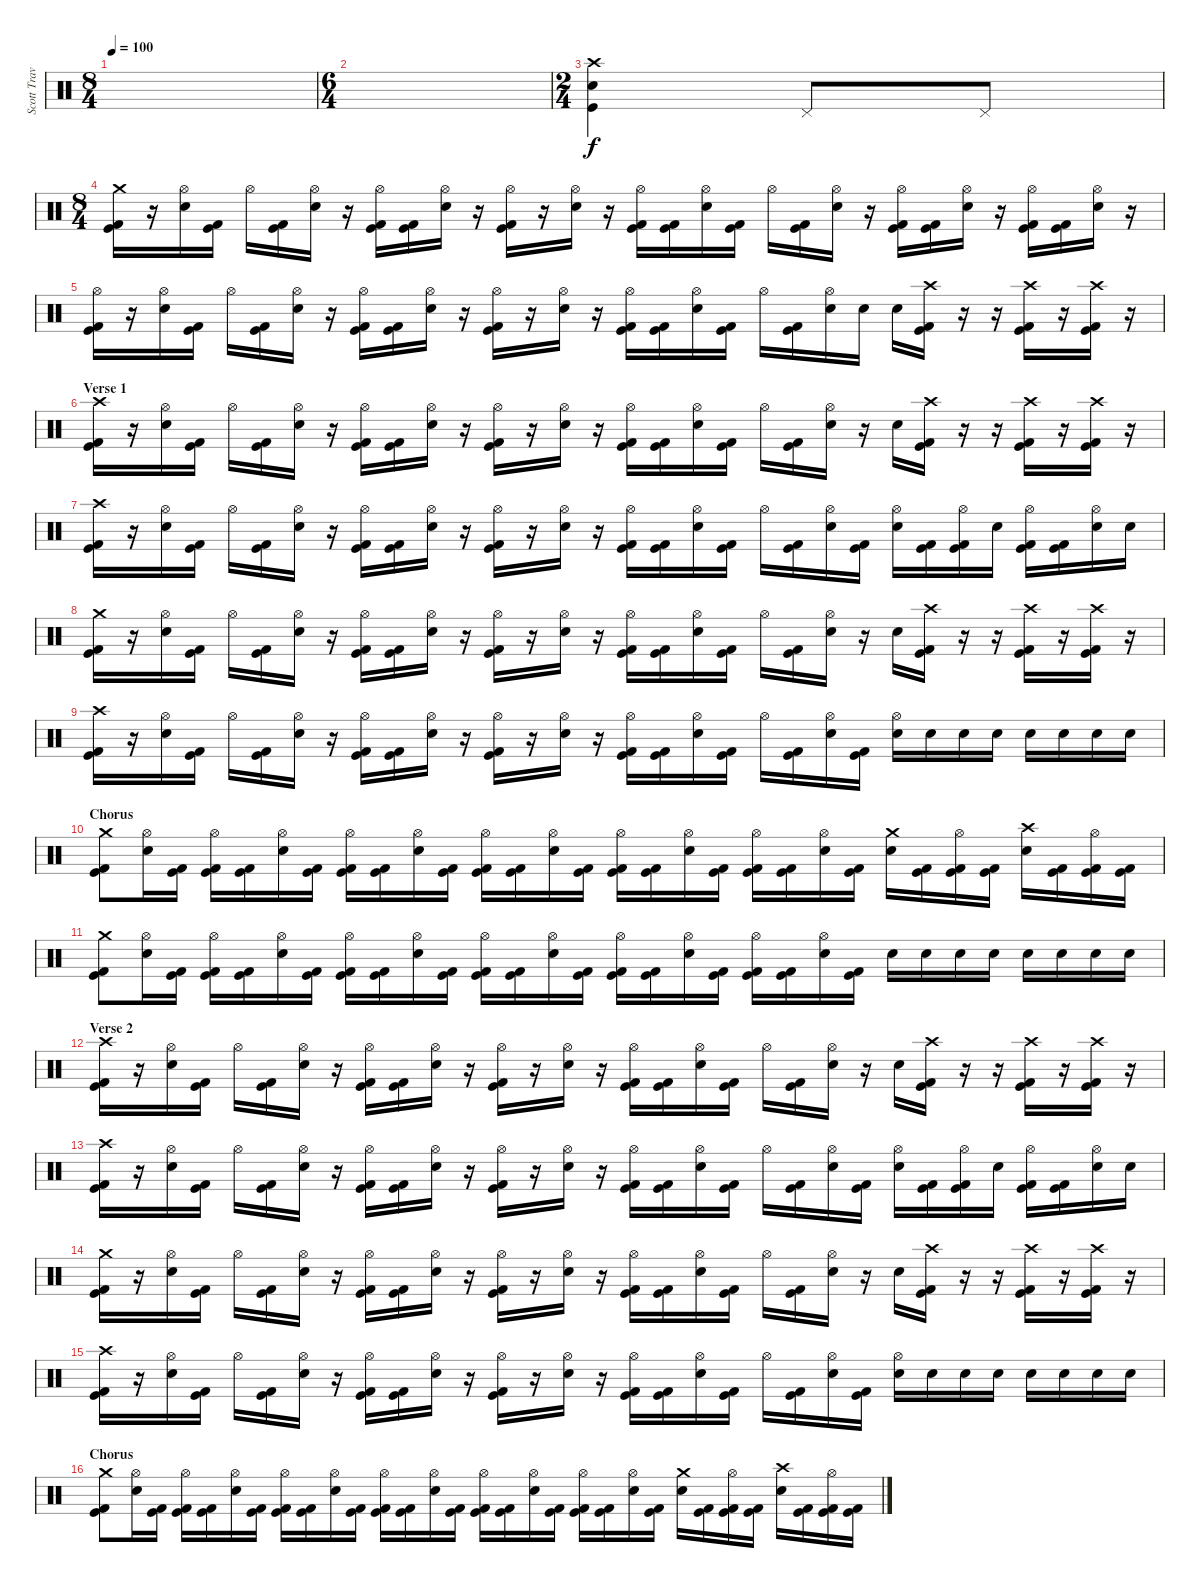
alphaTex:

\track ("Scott Travis" "Scott Trav") {instrument percussion}
\staff {score}
\articulation defaults
\ts (8 4)
\tempo 100
\clef neutral
\ks c
|
\ts (6 4)
|
\ts (2 4)
("Crash high (hit)" "Kick (hit)" "Electric Snare (hit)").4 "Pedal Hi-Hat (hit)".8 "Pedal Hi-Hat (hit)".8 |
\ts (8 4)
("Crash medium (hit)" "Kick (hit) 2" "Kick (hit)").16 r.16 ("Hi-Hat (open)" "Electric Snare (hit)").16 ("Kick (hit) 2" "Kick (hit)").16 "Hi-Hat (open)".16 ("Kick (hit) 2" "Kick (hit)").16 ("Hi-Hat (open)" "Electric Snare (hit)").16 r.16 ("Hi-Hat (open)" "Kick (hit) 2" "Kick (hit)").16 ("Kick (hit) 2" "Kick (hit)").16 ("Hi-Hat (open)" "Electric Snare (hit)").16 r.16 ("Hi-Hat (open)" "Kick (hit) 2" "Kick (hit)").16 r.16 ("Hi-Hat (open)" "Electric Snare (hit)").16 r.16 ("Hi-Hat (open)" "Kick (hit) 2" "Kick (hit)").16 ("Kick (hit) 2" "Kick (hit)").16 ("Hi-Hat (open)" "Electric Snare (hit)").16 ("Kick (hit) 2" "Kick (hit)").16 "Hi-Hat (open)".16 ("Kick (hit) 2" "Kick (hit)").16 ("Hi-Hat (open)" "Electric Snare (hit)").16 r.16 ("Hi-Hat (open)" "Kick (hit) 2" "Kick (hit)").16 ("Kick (hit) 2" "Kick (hit)").16 ("Hi-Hat (open)" "Electric Snare (hit)").16 r.16 ("Hi-Hat (open)" "Kick (hit) 2" "Kick (hit)").16 ("Kick (hit) 2" "Kick (hit)").16 ("Hi-Hat (open)" "Electric Snare (hit)").16 r.16 |
("Hi-Hat (open)" "Kick (hit) 2" "Kick (hit)").16 r.16 ("Hi-Hat (open)" "Electric Snare (hit)").16 ("Kick (hit) 2" "Kick (hit)").16 "Hi-Hat (open)".16 ("Kick (hit) 2" "Kick (hit)").16 ("Hi-Hat (open)" "Electric Snare (hit)").16 r.16 ("Hi-Hat (open)" "Kick (hit) 2" "Kick (hit)").16 ("Kick (hit) 2" "Kick (hit)").16 ("Hi-Hat (open)" "Electric Snare (hit)").16 r.16 ("Hi-Hat (open)" "Kick (hit) 2" "Kick (hit)").16 r.16 ("Hi-Hat (open)" "Electric Snare (hit)").16 r.16 ("Hi-Hat (open)" "Kick (hit) 2" "Kick (hit)").16 ("Kick (hit) 2" "Kick (hit)").16 ("Hi-Hat (open)" "Electric Snare (hit)").16 ("Kick (hit) 2" "Kick (hit)").16 "Hi-Hat (open)".16 ("Kick (hit) 2" "Kick (hit)").16 ("Hi-Hat (open)" "Electric Snare (hit)").16 "Electric Snare (hit)".16 "Electric Snare (hit)".16 ("Crash high (hit)" "Kick (hit)" "Kick (hit) 2").16 r.16 r.16 ("Crash high (hit)" "Kick (hit) 2" "Kick (hit)").16 r.16 ("Crash high (hit)" "Kick (hit)" "Kick (hit) 2").16 r.16 |
\section ("" "Verse 1")
("Crash high (hit)" "Kick (hit) 2" "Kick (hit)").16 r.16 ("Hi-Hat (open)" "Electric Snare (hit)").16 ("Kick (hit) 2" "Kick (hit)").16 "Hi-Hat (open)".16 ("Kick (hit) 2" "Kick (hit)").16 ("Hi-Hat (open)" "Electric Snare (hit)").16 r.16 ("Hi-Hat (open)" "Kick (hit) 2" "Kick (hit)").16 ("Kick (hit) 2" "Kick (hit)").16 ("Hi-Hat (open)" "Electric Snare (hit)").16 r.16 ("Hi-Hat (open)" "Kick (hit) 2" "Kick (hit)").16 r.16 ("Hi-Hat (open)" "Electric Snare (hit)").16 r.16 ("Hi-Hat (open)" "Kick (hit) 2" "Kick (hit)").16 ("Kick (hit) 2" "Kick (hit)").16 ("Hi-Hat (open)" "Electric Snare (hit)").16 ("Kick (hit) 2" "Kick (hit)").16 "Hi-Hat (open)".16 ("Kick (hit) 2" "Kick (hit)").16 ("Hi-Hat (open)" "Electric Snare (hit)").16 r.16 "Electric Snare (hit)".16 ("Crash high (hit)" "Kick (hit)" "Kick (hit) 2").16 r.16 r.16 ("Crash high (hit)" "Kick (hit) 2" "Kick (hit)").16 r.16 ("Crash high (hit)" "Kick (hit)" "Kick (hit) 2").16 r.16 |
("Crash high (hit)" "Kick (hit) 2" "Kick (hit)").16 r.16 ("Hi-Hat (open)" "Electric Snare (hit)").16 ("Kick (hit) 2" "Kick (hit)").16 "Hi-Hat (open)".16 ("Kick (hit) 2" "Kick (hit)").16 ("Hi-Hat (open)" "Electric Snare (hit)").16 r.16 ("Hi-Hat (open)" "Kick (hit) 2" "Kick (hit)").16 ("Kick (hit) 2" "Kick (hit)").16 ("Hi-Hat (open)" "Electric Snare (hit)").16 r.16 ("Hi-Hat (open)" "Kick (hit) 2" "Kick (hit)").16 r.16 ("Hi-Hat (open)" "Electric Snare (hit)").16 r.16 ("Hi-Hat (open)" "Kick (hit) 2" "Kick (hit)").16 ("Kick (hit) 2" "Kick (hit)").16 ("Hi-Hat (open)" "Electric Snare (hit)").16 ("Kick (hit) 2" "Kick (hit)").16 "Hi-Hat (open)".16 ("Kick (hit) 2" "Kick (hit)").16 ("Hi-Hat (open)" "Electric Snare (hit)").16 ("Kick (hit)" "Kick (hit) 2").16 ("Hi-Hat (open)" "Electric Snare (hit)").16 ("Kick (hit) 2" "Kick (hit)").16 ("Hi-Hat (open)" "Kick (hit) 2" "Kick (hit)").16 "Electric Snare (hit)".16 ("Hi-Hat (open)" "Kick (hit) 2" "Kick (hit)").16 ("Kick (hit) 2" "Kick (hit)").16 ("Hi-Hat (open)" "Electric Snare (hit)").16 "Electric Snare (hit)".16 |
("Crash medium (hit)" "Kick (hit) 2" "Kick (hit)").16 r.16 ("Hi-Hat (open)" "Electric Snare (hit)").16 ("Kick (hit) 2" "Kick (hit)").16 "Hi-Hat (open)".16 ("Kick (hit) 2" "Kick (hit)").16 ("Hi-Hat (open)" "Electric Snare (hit)").16 r.16 ("Hi-Hat (open)" "Kick (hit) 2" "Kick (hit)").16 ("Kick (hit) 2" "Kick (hit)").16 ("Hi-Hat (open)" "Electric Snare (hit)").16 r.16 ("Hi-Hat (open)" "Kick (hit) 2" "Kick (hit)").16 r.16 ("Hi-Hat (open)" "Electric Snare (hit)").16 r.16 ("Hi-Hat (open)" "Kick (hit) 2" "Kick (hit)").16 ("Kick (hit) 2" "Kick (hit)").16 ("Hi-Hat (open)" "Electric Snare (hit)").16 ("Kick (hit) 2" "Kick (hit)").16 "Hi-Hat (open)".16 ("Kick (hit) 2" "Kick (hit)").16 ("Hi-Hat (open)" "Electric Snare (hit)").16 r.16 "Electric Snare (hit)".16 ("Crash high (hit)" "Kick (hit)" "Kick (hit) 2").16 r.16 r.16 ("Crash high (hit)" "Kick (hit) 2" "Kick (hit)").16 r.16 ("Crash high (hit)" "Kick (hit)" "Kick (hit) 2").16 r.16 |
("Crash high (hit)" "Kick (hit) 2" "Kick (hit)").16 r.16 ("Hi-Hat (open)" "Electric Snare (hit)").16 ("Kick (hit) 2" "Kick (hit)").16 "Hi-Hat (open)".16 ("Kick (hit) 2" "Kick (hit)").16 ("Hi-Hat (open)" "Electric Snare (hit)").16 r.16 ("Hi-Hat (open)" "Kick (hit) 2" "Kick (hit)").16 ("Kick (hit) 2" "Kick (hit)").16 ("Hi-Hat (open)" "Electric Snare (hit)").16 r.16 ("Hi-Hat (open)" "Kick (hit) 2" "Kick (hit)").16 r.16 ("Hi-Hat (open)" "Electric Snare (hit)").16 r.16 ("Hi-Hat (open)" "Kick (hit) 2" "Kick (hit)").16 ("Kick (hit) 2" "Kick (hit)").16 ("Hi-Hat (open)" "Electric Snare (hit)").16 ("Kick (hit) 2" "Kick (hit)").16 "Hi-Hat (open)".16 ("Kick (hit) 2" "Kick (hit)").16 ("Hi-Hat (open)" "Electric Snare (hit)").16 ("Kick (hit)" "Kick (hit) 2").16 ("Hi-Hat (open)" "Electric Snare (hit)").16 "Electric Snare (hit)".16 "Electric Snare (hit)".16 "Electric Snare (hit)".16 "Electric Snare (hit)".16 "Electric Snare (hit)".16 "Electric Snare (hit)".16 "Electric Snare (hit)".16 |
\section ("" "Chorus")
("Crash medium (hit)" "Kick (hit)" "Kick (hit) 2").8 ("Hi-Hat (open)" "Electric Snare (hit)").16 ("Kick (hit) 2" "Kick (hit)").16 ("Hi-Hat (open)" "Kick (hit) 2" "Kick (hit)").16 ("Kick (hit) 2" "Kick (hit)").16 ("Hi-Hat (open)" "Electric Snare (hit)").16 ("Kick (hit) 2" "Kick (hit)").16 ("Hi-Hat (open)" "Kick (hit) 2" "Kick (hit)").16 ("Kick (hit) 2" "Kick (hit)").16 ("Hi-Hat (open)" "Electric Snare (hit)").16 ("Kick (hit) 2" "Kick (hit)").16 ("Hi-Hat (open)" "Kick (hit) 2" "Kick (hit)").16 ("Kick (hit) 2" "Kick (hit)").16 ("Hi-Hat (open)" "Electric Snare (hit)").16 ("Kick (hit) 2" "Kick (hit)").16 ("Hi-Hat (open)" "Kick (hit) 2" "Kick (hit)").16 ("Kick (hit) 2" "Kick (hit)").16 ("Hi-Hat (open)" "Electric Snare (hit)").16 ("Kick (hit) 2" "Kick (hit)").16 ("Hi-Hat (open)" "Kick (hit) 2" "Kick (hit)").16 ("Kick (hit) 2" "Kick (hit)").16 ("Hi-Hat (open)" "Electric Snare (hit)").16 ("Kick (hit) 2" "Kick (hit)").16 ("Crash medium (hit)" "Electric Snare (hit)").16 ("Kick (hit) 2" "Kick (hit)").16 ("Hi-Hat (open)" "Kick (hit) 2" "Kick (hit)").16 ("Kick (hit) 2" "Kick (hit)").16 ("Crash high (hit)" "Electric Snare (hit)").16 ("Kick (hit) 2" "Kick (hit)").16 ("Hi-Hat (open)" "Kick (hit) 2" "Kick (hit)").16 ("Kick (hit) 2" "Kick (hit)").16 |
("Crash medium (hit)" "Kick (hit)" "Kick (hit) 2").8 ("Hi-Hat (open)" "Electric Snare (hit)").16 ("Kick (hit) 2" "Kick (hit)").16 ("Hi-Hat (open)" "Kick (hit) 2" "Kick (hit)").16 ("Kick (hit) 2" "Kick (hit)").16 ("Hi-Hat (open)" "Electric Snare (hit)").16 ("Kick (hit) 2" "Kick (hit)").16 ("Hi-Hat (open)" "Kick (hit) 2" "Kick (hit)").16 ("Kick (hit) 2" "Kick (hit)").16 ("Hi-Hat (open)" "Electric Snare (hit)").16 ("Kick (hit) 2" "Kick (hit)").16 ("Hi-Hat (open)" "Kick (hit) 2" "Kick (hit)").16 ("Kick (hit) 2" "Kick (hit)").16 ("Hi-Hat (open)" "Electric Snare (hit)").16 ("Kick (hit) 2" "Kick (hit)").16 ("Hi-Hat (open)" "Kick (hit) 2" "Kick (hit)").16 ("Kick (hit) 2" "Kick (hit)").16 ("Hi-Hat (open)" "Electric Snare (hit)").16 ("Kick (hit) 2" "Kick (hit)").16 ("Hi-Hat (open)" "Kick (hit) 2" "Kick (hit)").16 ("Kick (hit) 2" "Kick (hit)").16 ("Hi-Hat (open)" "Electric Snare (hit)").16 ("Kick (hit) 2" "Kick (hit)").16 "Electric Snare (hit)".16 "Electric Snare (hit)".16 "Electric Snare (hit)".16 "Electric Snare (hit)".16 "Electric Snare (hit)".16 "Electric Snare (hit)".16 "Electric Snare (hit)".16 "Electric Snare (hit)".16 |
\section ("" "Verse 2")
("Crash high (hit)" "Kick (hit) 2" "Kick (hit)").16 r.16 ("Hi-Hat (open)" "Electric Snare (hit)").16 ("Kick (hit) 2" "Kick (hit)").16 "Hi-Hat (open)".16 ("Kick (hit) 2" "Kick (hit)").16 ("Hi-Hat (open)" "Electric Snare (hit)").16 r.16 ("Hi-Hat (open)" "Kick (hit) 2" "Kick (hit)").16 ("Kick (hit) 2" "Kick (hit)").16 ("Hi-Hat (open)" "Electric Snare (hit)").16 r.16 ("Hi-Hat (open)" "Kick (hit) 2" "Kick (hit)").16 r.16 ("Hi-Hat (open)" "Electric Snare (hit)").16 r.16 ("Hi-Hat (open)" "Kick (hit) 2" "Kick (hit)").16 ("Kick (hit) 2" "Kick (hit)").16 ("Hi-Hat (open)" "Electric Snare (hit)").16 ("Kick (hit) 2" "Kick (hit)").16 "Hi-Hat (open)".16 ("Kick (hit) 2" "Kick (hit)").16 ("Hi-Hat (open)" "Electric Snare (hit)").16 r.16 "Electric Snare (hit)".16 ("Crash high (hit)" "Kick (hit)" "Kick (hit) 2").16 r.16 r.16 ("Crash high (hit)" "Kick (hit) 2" "Kick (hit)").16 r.16 ("Crash high (hit)" "Kick (hit)" "Kick (hit) 2").16 r.16 |
("Crash high (hit)" "Kick (hit) 2" "Kick (hit)").16 r.16 ("Hi-Hat (open)" "Electric Snare (hit)").16 ("Kick (hit) 2" "Kick (hit)").16 "Hi-Hat (open)".16 ("Kick (hit) 2" "Kick (hit)").16 ("Hi-Hat (open)" "Electric Snare (hit)").16 r.16 ("Hi-Hat (open)" "Kick (hit) 2" "Kick (hit)").16 ("Kick (hit) 2" "Kick (hit)").16 ("Hi-Hat (open)" "Electric Snare (hit)").16 r.16 ("Hi-Hat (open)" "Kick (hit) 2" "Kick (hit)").16 r.16 ("Hi-Hat (open)" "Electric Snare (hit)").16 r.16 ("Hi-Hat (open)" "Kick (hit) 2" "Kick (hit)").16 ("Kick (hit) 2" "Kick (hit)").16 ("Hi-Hat (open)" "Electric Snare (hit)").16 ("Kick (hit) 2" "Kick (hit)").16 "Hi-Hat (open)".16 ("Kick (hit) 2" "Kick (hit)").16 ("Hi-Hat (open)" "Electric Snare (hit)").16 ("Kick (hit)" "Kick (hit) 2").16 ("Hi-Hat (open)" "Electric Snare (hit)").16 ("Kick (hit) 2" "Kick (hit)").16 ("Hi-Hat (open)" "Kick (hit) 2" "Kick (hit)").16 "Electric Snare (hit)".16 ("Hi-Hat (open)" "Kick (hit) 2" "Kick (hit)").16 ("Kick (hit) 2" "Kick (hit)").16 ("Hi-Hat (open)" "Electric Snare (hit)").16 "Electric Snare (hit)".16 |
("Crash medium (hit)" "Kick (hit) 2" "Kick (hit)").16 r.16 ("Hi-Hat (open)" "Electric Snare (hit)").16 ("Kick (hit) 2" "Kick (hit)").16 "Hi-Hat (open)".16 ("Kick (hit) 2" "Kick (hit)").16 ("Hi-Hat (open)" "Electric Snare (hit)").16 r.16 ("Hi-Hat (open)" "Kick (hit) 2" "Kick (hit)").16 ("Kick (hit) 2" "Kick (hit)").16 ("Hi-Hat (open)" "Electric Snare (hit)").16 r.16 ("Hi-Hat (open)" "Kick (hit) 2" "Kick (hit)").16 r.16 ("Hi-Hat (open)" "Electric Snare (hit)").16 r.16 ("Hi-Hat (open)" "Kick (hit) 2" "Kick (hit)").16 ("Kick (hit) 2" "Kick (hit)").16 ("Hi-Hat (open)" "Electric Snare (hit)").16 ("Kick (hit) 2" "Kick (hit)").16 "Hi-Hat (open)".16 ("Kick (hit) 2" "Kick (hit)").16 ("Hi-Hat (open)" "Electric Snare (hit)").16 r.16 "Electric Snare (hit)".16 ("Crash high (hit)" "Kick (hit)" "Kick (hit) 2").16 r.16 r.16 ("Crash high (hit)" "Kick (hit) 2" "Kick (hit)").16 r.16 ("Crash high (hit)" "Kick (hit)" "Kick (hit) 2").16 r.16 |
("Crash high (hit)" "Kick (hit) 2" "Kick (hit)").16 r.16 ("Hi-Hat (open)" "Electric Snare (hit)").16 ("Kick (hit) 2" "Kick (hit)").16 "Hi-Hat (open)".16 ("Kick (hit) 2" "Kick (hit)").16 ("Hi-Hat (open)" "Electric Snare (hit)").16 r.16 ("Hi-Hat (open)" "Kick (hit) 2" "Kick (hit)").16 ("Kick (hit) 2" "Kick (hit)").16 ("Hi-Hat (open)" "Electric Snare (hit)").16 r.16 ("Hi-Hat (open)" "Kick (hit) 2" "Kick (hit)").16 r.16 ("Hi-Hat (open)" "Electric Snare (hit)").16 r.16 ("Hi-Hat (open)" "Kick (hit) 2" "Kick (hit)").16 ("Kick (hit) 2" "Kick (hit)").16 ("Hi-Hat (open)" "Electric Snare (hit)").16 ("Kick (hit) 2" "Kick (hit)").16 "Hi-Hat (open)".16 ("Kick (hit) 2" "Kick (hit)").16 ("Hi-Hat (open)" "Electric Snare (hit)").16 ("Kick (hit)" "Kick (hit) 2").16 ("Hi-Hat (open)" "Electric Snare (hit)").16 "Electric Snare (hit)".16 "Electric Snare (hit)".16 "Electric Snare (hit)".16 "Electric Snare (hit)".16 "Electric Snare (hit)".16 "Electric Snare (hit)".16 "Electric Snare (hit)".16 |
\section ("" "Chorus")
("Crash medium (hit)" "Kick (hit)" "Kick (hit) 2").8 ("Hi-Hat (open)" "Electric Snare (hit)").16 ("Kick (hit) 2" "Kick (hit)").16 ("Hi-Hat (open)" "Kick (hit) 2" "Kick (hit)").16 ("Kick (hit) 2" "Kick (hit)").16 ("Hi-Hat (open)" "Electric Snare (hit)").16 ("Kick (hit) 2" "Kick (hit)").16 ("Hi-Hat (open)" "Kick (hit) 2" "Kick (hit)").16 ("Kick (hit) 2" "Kick (hit)").16 ("Hi-Hat (open)" "Electric Snare (hit)").16 ("Kick (hit) 2" "Kick (hit)").16 ("Hi-Hat (open)" "Kick (hit) 2" "Kick (hit)").16 ("Kick (hit) 2" "Kick (hit)").16 ("Hi-Hat (open)" "Electric Snare (hit)").16 ("Kick (hit) 2" "Kick (hit)").16 ("Hi-Hat (open)" "Kick (hit) 2" "Kick (hit)").16 ("Kick (hit) 2" "Kick (hit)").16 ("Hi-Hat (open)" "Electric Snare (hit)").16 ("Kick (hit) 2" "Kick (hit)").16 ("Hi-Hat (open)" "Kick (hit) 2" "Kick (hit)").16 ("Kick (hit) 2" "Kick (hit)").16 ("Hi-Hat (open)" "Electric Snare (hit)").16 ("Kick (hit) 2" "Kick (hit)").16 ("Crash medium (hit)" "Electric Snare (hit)").16 ("Kick (hit) 2" "Kick (hit)").16 ("Hi-Hat (open)" "Kick (hit) 2" "Kick (hit)").16 ("Kick (hit) 2" "Kick (hit)").16 ("Crash high (hit)" "Electric Snare (hit)").16 ("Kick (hit) 2" "Kick (hit)").16 ("Hi-Hat (open)" "Kick (hit) 2" "Kick (hit)").16 ("Kick (hit) 2" "Kick (hit)").16
